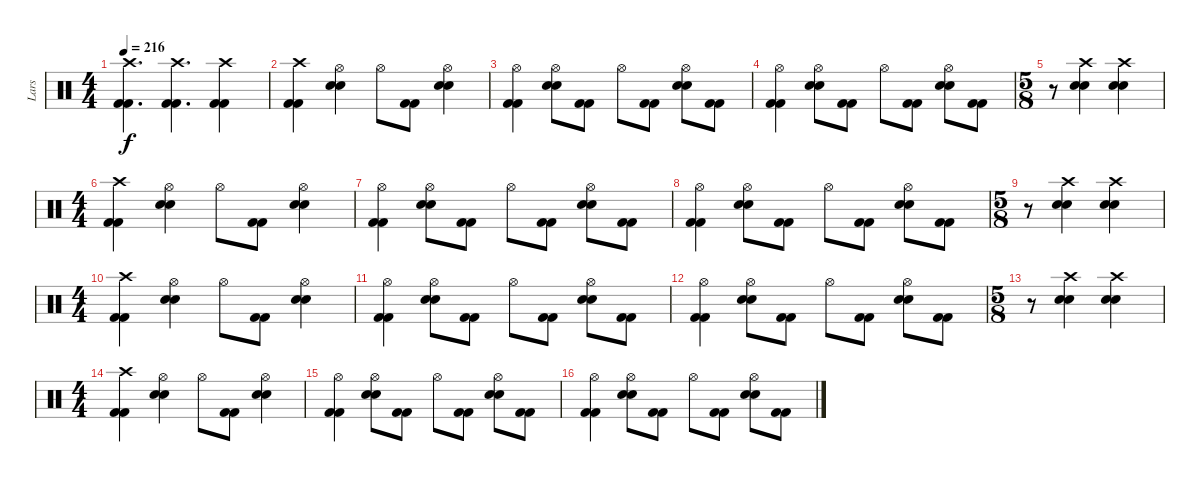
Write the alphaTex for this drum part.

\track ("Lars" "Lars") {instrument percussion}
\staff {score}
\articulation defaults
\ts (4 4)
\tempo 216
\clef neutral
\ks c
("Crash high (hit)" "Kick (hit) 2" "Kick (hit) 2").4{d dy f} ("Crash high (hit)" "Kick (hit) 2" "Kick (hit) 2").4{d} ("Crash high (hit)" "Kick (hit) 2" "Kick (hit) 2").4 |
("Crash high (hit)" "Kick (hit) 2" "Kick (hit) 2").4 ("Hi-Hat (open)" "Electric Snare (hit)" "Electric Snare (hit)").4 "Hi-Hat (open)".8 ("Kick (hit) 2" "Kick (hit) 2").8 ("Hi-Hat (open)" "Electric Snare (hit)" "Electric Snare (hit)").4 |
("Hi-Hat (open)" "Kick (hit) 2" "Kick (hit) 2").4 ("Hi-Hat (open)" "Electric Snare (hit)" "Electric Snare (hit)").8 ("Kick (hit) 2" "Kick (hit) 2").8 "Hi-Hat (open)".8 ("Kick (hit) 2" "Kick (hit) 2").8 ("Hi-Hat (open)" "Electric Snare (hit)" "Electric Snare (hit)").8 ("Kick (hit) 2" "Kick (hit) 2").8 |
("Hi-Hat (open)" "Kick (hit) 2" "Kick (hit) 2").4 ("Hi-Hat (open)" "Electric Snare (hit)" "Electric Snare (hit)").8 ("Kick (hit) 2" "Kick (hit) 2").8 "Hi-Hat (open)".8 ("Kick (hit) 2" "Kick (hit) 2").8 ("Hi-Hat (open)" "Electric Snare (hit)" "Electric Snare (hit)").8 ("Kick (hit) 2" "Kick (hit) 2").8 |
\ts (5 8)
r.8 ("Crash high (hit)" "Electric Snare (hit)" "Electric Snare (hit)").4 ("Crash high (hit)" "Electric Snare (hit)" "Electric Snare (hit)").4 |
\ts (4 4)
("Crash high (hit)" "Kick (hit) 2" "Kick (hit) 2").4 ("Hi-Hat (open)" "Electric Snare (hit)" "Electric Snare (hit)").4 "Hi-Hat (open)".8 ("Kick (hit) 2" "Kick (hit) 2").8 ("Hi-Hat (open)" "Electric Snare (hit)" "Electric Snare (hit)").4 |
("Hi-Hat (open)" "Kick (hit) 2" "Kick (hit) 2").4 ("Hi-Hat (open)" "Electric Snare (hit)" "Electric Snare (hit)").8 ("Kick (hit) 2" "Kick (hit) 2").8 "Hi-Hat (open)".8 ("Kick (hit) 2" "Kick (hit) 2").8 ("Hi-Hat (open)" "Electric Snare (hit)" "Electric Snare (hit)").8 ("Kick (hit) 2" "Kick (hit) 2").8 |
("Hi-Hat (open)" "Kick (hit) 2" "Kick (hit) 2").4 ("Hi-Hat (open)" "Electric Snare (hit)" "Electric Snare (hit)").8 ("Kick (hit) 2" "Kick (hit) 2").8 "Hi-Hat (open)".8 ("Kick (hit) 2" "Kick (hit) 2").8 ("Hi-Hat (open)" "Electric Snare (hit)" "Electric Snare (hit)").8 ("Kick (hit) 2" "Kick (hit) 2").8 |
\ts (5 8)
r.8 ("Crash high (hit)" "Electric Snare (hit)" "Electric Snare (hit)").4 ("Crash high (hit)" "Electric Snare (hit)" "Electric Snare (hit)").4 |
\ts (4 4)
("Crash high (hit)" "Kick (hit) 2" "Kick (hit) 2").4 ("Hi-Hat (open)" "Electric Snare (hit)" "Electric Snare (hit)").4 "Hi-Hat (open)".8 ("Kick (hit) 2" "Kick (hit) 2").8 ("Hi-Hat (open)" "Electric Snare (hit)" "Electric Snare (hit)").4 |
("Hi-Hat (open)" "Kick (hit) 2" "Kick (hit) 2").4 ("Hi-Hat (open)" "Electric Snare (hit)" "Electric Snare (hit)").8 ("Kick (hit) 2" "Kick (hit) 2").8 "Hi-Hat (open)".8 ("Kick (hit) 2" "Kick (hit) 2").8 ("Hi-Hat (open)" "Electric Snare (hit)" "Electric Snare (hit)").8 ("Kick (hit) 2" "Kick (hit) 2").8 |
("Hi-Hat (open)" "Kick (hit) 2" "Kick (hit) 2").4 ("Hi-Hat (open)" "Electric Snare (hit)" "Electric Snare (hit)").8 ("Kick (hit) 2" "Kick (hit) 2").8 "Hi-Hat (open)".8 ("Kick (hit) 2" "Kick (hit) 2").8 ("Hi-Hat (open)" "Electric Snare (hit)" "Electric Snare (hit)").8 ("Kick (hit) 2" "Kick (hit) 2").8 |
\ts (5 8)
r.8 ("Crash high (hit)" "Electric Snare (hit)" "Electric Snare (hit)").4 ("Crash high (hit)" "Electric Snare (hit)" "Electric Snare (hit)").4 |
\ts (4 4)
("Crash high (hit)" "Kick (hit) 2" "Kick (hit) 2").4 ("Hi-Hat (open)" "Electric Snare (hit)" "Electric Snare (hit)").4 "Hi-Hat (open)".8 ("Kick (hit) 2" "Kick (hit) 2").8 ("Hi-Hat (open)" "Electric Snare (hit)" "Electric Snare (hit)").4 |
("Hi-Hat (open)" "Kick (hit) 2" "Kick (hit) 2").4 ("Hi-Hat (open)" "Electric Snare (hit)" "Electric Snare (hit)").8 ("Kick (hit) 2" "Kick (hit) 2").8 "Hi-Hat (open)".8 ("Kick (hit) 2" "Kick (hit) 2").8 ("Hi-Hat (open)" "Electric Snare (hit)" "Electric Snare (hit)").8 ("Kick (hit) 2" "Kick (hit) 2").8 |
("Hi-Hat (open)" "Kick (hit) 2" "Kick (hit) 2").4 ("Hi-Hat (open)" "Electric Snare (hit)" "Electric Snare (hit)").8 ("Kick (hit) 2" "Kick (hit) 2").8 "Hi-Hat (open)".8 ("Kick (hit) 2" "Kick (hit) 2").8 ("Hi-Hat (open)" "Electric Snare (hit)" "Electric Snare (hit)").8 ("Kick (hit) 2" "Kick (hit) 2").8
